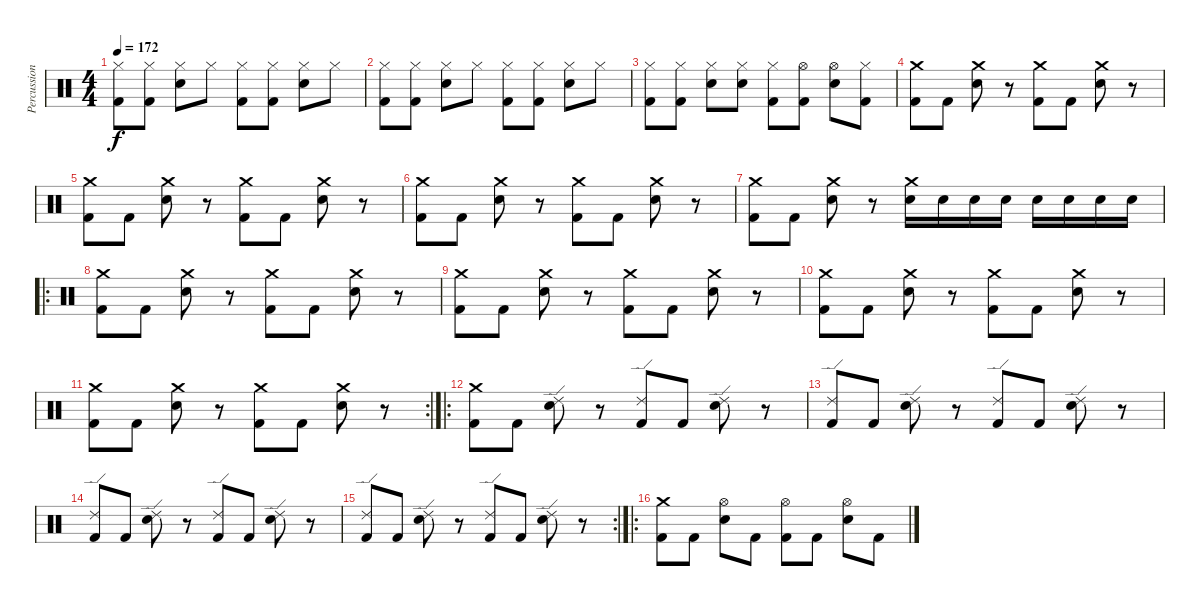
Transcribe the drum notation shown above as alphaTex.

\track ("Percussions" "Percussion") {instrument percussion}
\staff {score}
\articulation defaults
\ts (4 4)
\tempo 172
\clef neutral
\ks c
("Hi-Hat (closed)" "Kick (hit) 2").8{dy f} ("Hi-Hat (closed)" "Kick (hit) 2").8 ("Hi-Hat (closed)" "Electric Snare (hit)").8 "Hi-Hat (closed)".8 ("Hi-Hat (closed)" "Kick (hit) 2").8 ("Hi-Hat (closed)" "Kick (hit) 2").8 ("Hi-Hat (closed)" "Electric Snare (hit)").8 "Hi-Hat (closed)".8 |
("Hi-Hat (closed)" "Kick (hit) 2").8 ("Hi-Hat (closed)" "Kick (hit) 2").8 ("Hi-Hat (closed)" "Electric Snare (hit)").8 "Hi-Hat (closed)".8 ("Hi-Hat (closed)" "Kick (hit) 2").8 ("Hi-Hat (closed)" "Kick (hit) 2").8 ("Hi-Hat (closed)" "Electric Snare (hit)").8 "Hi-Hat (closed)".8 |
("Hi-Hat (closed)" "Kick (hit) 2").8 ("Hi-Hat (closed)" "Kick (hit) 2").8 ("Hi-Hat (closed)" "Electric Snare (hit)").8 ("Hi-Hat (closed)" "Electric Snare (hit)").8 ("Hi-Hat (closed)" "Kick (hit) 2").8 ("Hi-Hat (open)" "Kick (hit) 2").8 ("Hi-Hat (open)" "Electric Snare (hit)").8 ("Hi-Hat (closed)" "Kick (hit) 2").8 |
("Kick (hit) 2" "Crash medium (hit)").8 "Kick (hit) 2".8 ("Crash medium (hit)" "Electric Snare (hit)").8 r.8 ("Crash medium (hit)" "Kick (hit) 2").8 "Kick (hit) 2".8 ("Crash medium (hit)" "Electric Snare (hit)").8 r.8 |
("Kick (hit) 2" "Crash medium (hit)").8 "Kick (hit) 2".8 ("Crash medium (hit)" "Electric Snare (hit)").8 r.8 ("Crash medium (hit)" "Kick (hit) 2").8 "Kick (hit) 2".8 ("Crash medium (hit)" "Electric Snare (hit)").8 r.8 |
("Kick (hit) 2" "Crash medium (hit)").8 "Kick (hit) 2".8 ("Crash medium (hit)" "Electric Snare (hit)").8 r.8 ("Crash medium (hit)" "Kick (hit) 2").8 "Kick (hit) 2".8 ("Crash medium (hit)" "Electric Snare (hit)").8 r.8 |
("Kick (hit) 2" "Crash medium (hit)").8 "Kick (hit) 2".8 ("Crash medium (hit)" "Electric Snare (hit)").8 r.8 ("Crash medium (hit)" "Electric Snare (hit)").16 "Electric Snare (hit)".16 "Electric Snare (hit)".16 "Electric Snare (hit)".16 "Electric Snare (hit)".16 "Electric Snare (hit)".16 "Electric Snare (hit)".16 "Electric Snare (hit)".16 |
\ro
("Kick (hit) 2" "Crash medium (hit)").8 "Kick (hit) 2".8 ("Crash medium (hit)" "Electric Snare (hit)").8 r.8 ("Crash medium (hit)" "Kick (hit) 2").8 "Kick (hit) 2".8 ("Crash medium (hit)" "Electric Snare (hit)").8 r.8 |
("Kick (hit) 2" "Crash medium (hit)").8 "Kick (hit) 2".8 ("Crash medium (hit)" "Electric Snare (hit)").8 r.8 ("Crash medium (hit)" "Kick (hit) 2").8 "Kick (hit) 2".8 ("Crash medium (hit)" "Electric Snare (hit)").8 r.8 |
("Kick (hit) 2" "Crash medium (hit)").8 "Kick (hit) 2".8 ("Crash medium (hit)" "Electric Snare (hit)").8 r.8 ("Crash medium (hit)" "Kick (hit) 2").8 "Kick (hit) 2".8 ("Crash medium (hit)" "Electric Snare (hit)").8 r.8 |
\rc 2
("Kick (hit) 2" "Crash medium (hit)").8 "Kick (hit) 2".8 ("Crash medium (hit)" "Electric Snare (hit)").8 r.8 ("Crash medium (hit)" "Kick (hit) 2").8 "Kick (hit) 2".8 ("Crash medium (hit)" "Electric Snare (hit)").8 r.8 |
\ro
("Kick (hit) 2" "Crash medium (hit)").8 "Kick (hit) 2".8 ("Ride (edge) 2" "Electric Snare (hit)").8 r.8 ("Ride (edge) 2" "Kick (hit) 2").8 "Kick (hit) 2".8 ("Ride (edge) 2" "Electric Snare (hit)").8 r.8 |
("Ride (edge) 2" "Kick (hit) 2").8 "Kick (hit) 2".8 ("Ride (edge) 2" "Electric Snare (hit)").8 r.8 ("Ride (edge) 2" "Kick (hit) 2").8 "Kick (hit) 2".8 ("Ride (edge) 2" "Electric Snare (hit)").8 r.8 |
("Ride (edge) 2" "Kick (hit) 2").8 "Kick (hit) 2".8 ("Ride (edge) 2" "Electric Snare (hit)").8 r.8 ("Ride (edge) 2" "Kick (hit) 2").8 "Kick (hit) 2".8 ("Ride (edge) 2" "Electric Snare (hit)").8 r.8 |
\rc 2
("Ride (edge) 2" "Kick (hit) 2").8 "Kick (hit) 2".8 ("Ride (edge) 2" "Electric Snare (hit)").8 r.8 ("Ride (edge) 2" "Kick (hit) 2").8 "Kick (hit) 2".8 ("Ride (edge) 2" "Electric Snare (hit)").8 r.8 |
\ro
("Crash medium (hit)" "Kick (hit) 2").8 "Kick (hit) 2".8 ("Hi-Hat (open)" "Electric Snare (hit)").8 "Kick (hit) 2".8 ("Hi-Hat (open)" "Kick (hit) 2").8 "Kick (hit) 2".8 ("Hi-Hat (open)" "Electric Snare (hit)").8 "Kick (hit) 2".8
